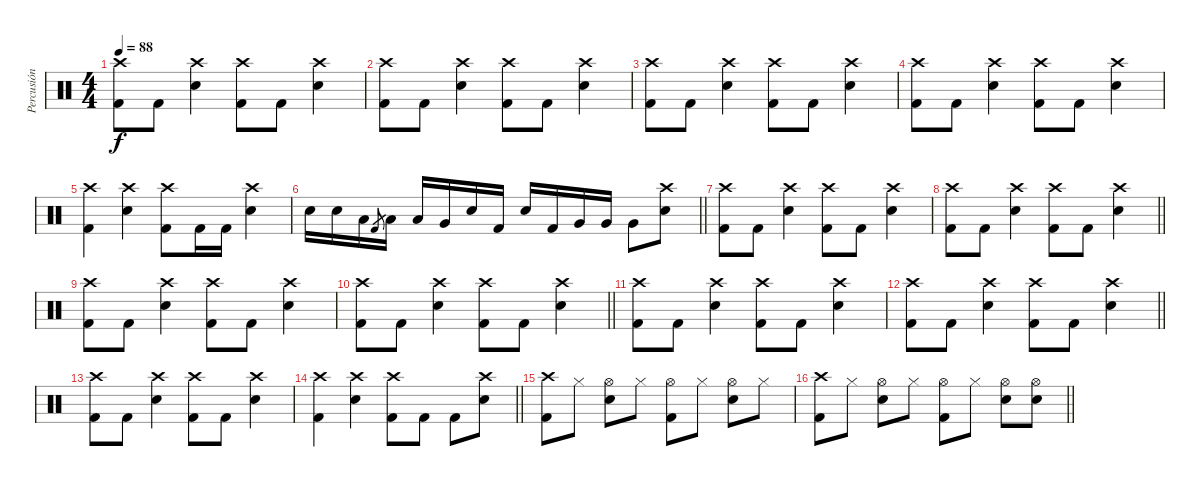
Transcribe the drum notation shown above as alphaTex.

\track ("Percusión" "Percusión") {instrument percussion}
\staff {score}
\articulation defaults
\ts (4 4)
\tempo 88
\clef neutral
\ks c
("Crash high (hit)" "Kick (hit) 2").8{dy f} "Kick (hit) 2".8 ("Crash high (hit)" "Electric Snare (hit)").4 ("Crash high (hit)" "Kick (hit) 2").8 "Kick (hit) 2".8 ("Crash high (hit)" "Electric Snare (hit)").4 |
("Crash high (hit)" "Kick (hit) 2").8 "Kick (hit) 2".8 ("Crash high (hit)" "Electric Snare (hit)").4 ("Crash high (hit)" "Kick (hit) 2").8 "Kick (hit) 2".8 ("Crash high (hit)" "Electric Snare (hit)").4 |
("Crash high (hit)" "Kick (hit) 2").8 "Kick (hit) 2".8 ("Crash high (hit)" "Electric Snare (hit)").4 ("Crash high (hit)" "Kick (hit) 2").8 "Kick (hit) 2".8 ("Crash high (hit)" "Electric Snare (hit)").4 |
("Crash high (hit)" "Kick (hit) 2").8 "Kick (hit) 2".8 ("Crash high (hit)" "Electric Snare (hit)").4 ("Crash high (hit)" "Kick (hit) 2").8 "Kick (hit) 2".8 ("Crash high (hit)" "Electric Snare (hit)").4 |
("Crash high (hit)" "Kick (hit) 2").4 ("Crash high (hit)" "Electric Snare (hit)").4 ("Crash high (hit)" "Kick (hit) 2").8 "Kick (hit) 2".16 "Kick (hit) 2".16 ("Crash high (hit)" "Electric Snare (hit)").4 |
\barLineRight lightlight "Electric Snare (hit)".16 "Electric Snare (hit)".16 "Low Tom (hit)".16 "Kick (hit) 2".8{gr} "Low Tom (hit)".16 "Low Tom (hit)".16 "Very Low Tom (hit)".16 "Electric Snare (hit)".16 "Kick (hit) 2".16 "Electric Snare (hit)".16 "Kick (hit) 2".16 "Very Low Tom (hit)".16 "Very Low Tom (hit)".16 "Very Low Tom (hit)".8
("Crash high (hit)" "Electric Snare (hit)").8 |
("Crash high (hit)" "Kick (hit) 2").8 "Kick (hit) 2".8 ("Crash high (hit)" "Electric Snare (hit)").4 ("Crash high (hit)" "Kick (hit) 2").8 "Kick (hit) 2".8 ("Crash high (hit)" "Electric Snare (hit)").4 |
\barLineRight lightlight
("Crash high (hit)" "Kick (hit) 2").8 "Kick (hit) 2".8 ("Crash high (hit)" "Electric Snare (hit)").4 ("Crash high (hit)" "Kick (hit) 2").8 "Kick (hit) 2".8 ("Crash high (hit)" "Electric Snare (hit)").4 |
("Crash high (hit)" "Kick (hit) 2").8 "Kick (hit) 2".8 ("Crash high (hit)" "Electric Snare (hit)").4 ("Crash high (hit)" "Kick (hit) 2").8 "Kick (hit) 2".8 ("Crash high (hit)" "Electric Snare (hit)").4 |
\barLineRight lightlight
("Crash high (hit)" "Kick (hit) 2").8 "Kick (hit) 2".8 ("Crash high (hit)" "Electric Snare (hit)").4 ("Crash high (hit)" "Kick (hit) 2").8 "Kick (hit) 2".8 ("Crash high (hit)" "Electric Snare (hit)").4 |
("Crash high (hit)" "Kick (hit) 2").8 "Kick (hit) 2".8 ("Crash high (hit)" "Electric Snare (hit)").4 ("Crash high (hit)" "Kick (hit) 2").8 "Kick (hit) 2".8 ("Crash high (hit)" "Electric Snare (hit)").4 |
\barLineRight lightlight
("Crash high (hit)" "Kick (hit) 2").8 "Kick (hit) 2".8 ("Crash high (hit)" "Electric Snare (hit)").4 ("Crash high (hit)" "Kick (hit) 2").8 "Kick (hit) 2".8 ("Crash high (hit)" "Electric Snare (hit)").4 |
("Crash high (hit)" "Kick (hit) 2").8 "Kick (hit) 2".8 ("Crash high (hit)" "Electric Snare (hit)").4 ("Crash high (hit)" "Kick (hit) 2").8 "Kick (hit) 2".8 ("Crash high (hit)" "Electric Snare (hit)").4 |
\barLineRight lightlight
("Crash high (hit)" "Kick (hit) 2").4 ("Crash high (hit)" "Electric Snare (hit)").4 ("Crash high (hit)" "Kick (hit) 2").8 "Kick (hit) 2".8 "Kick (hit) 2".8 ("Crash high (hit)" "Electric Snare (hit)").8 |
("Crash high (hit)" "Kick (hit) 2").8 "Hi-Hat (closed)".8 ("Hi-Hat (open)" "Electric Snare (hit)").8 "Hi-Hat (closed)".8 ("Hi-Hat (open)" "Kick (hit) 2").8 "Hi-Hat (closed)".8 ("Hi-Hat (open)" "Electric Snare (hit)").8 "Hi-Hat (closed)".8 |
\barLineRight lightlight
("Crash high (hit)" "Kick (hit) 2").8 "Hi-Hat (closed)".8 ("Hi-Hat (open)" "Electric Snare (hit)").8 "Hi-Hat (closed)".8 ("Hi-Hat (open)" "Kick (hit) 2").8 "Hi-Hat (closed)".8 ("Hi-Hat (open)" "Electric Snare (hit)").8 ("Hi-Hat (open)" "Electric Snare (hit)").8
